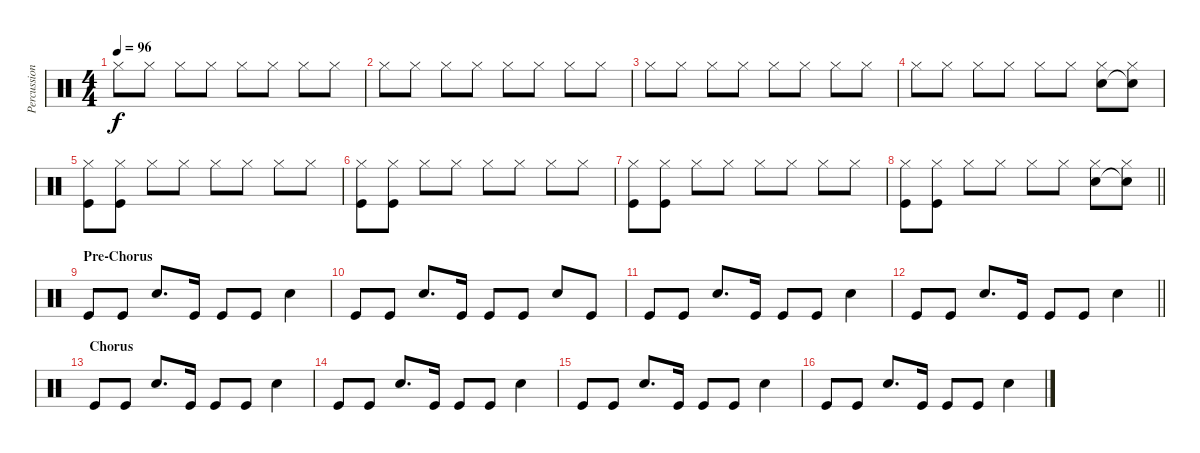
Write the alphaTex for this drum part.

\track ("Percussion" "Percussion") {instrument percussion}
\staff {score}
\articulation defaults
\ts (4 4)
\tempo 96
\clef neutral
\ks c "Hi-Hat (closed)".8{dy f} "Hi-Hat (closed)".8 "Hi-Hat (closed)".8 "Hi-Hat (closed)".8 "Hi-Hat (closed)".8 "Hi-Hat (closed)".8 "Hi-Hat (closed)".8 "Hi-Hat (closed)".8
|
"Hi-Hat (closed)".8 "Hi-Hat (closed)".8 "Hi-Hat (closed)".8 "Hi-Hat (closed)".8 "Hi-Hat (closed)".8 "Hi-Hat (closed)".8 "Hi-Hat (closed)".8 "Hi-Hat (closed)".8 |
"Hi-Hat (closed)".8 "Hi-Hat (closed)".8 "Hi-Hat (closed)".8 "Hi-Hat (closed)".8 "Hi-Hat (closed)".8 "Hi-Hat (closed)".8 "Hi-Hat (closed)".8 "Hi-Hat (closed)".8 |
"Hi-Hat (closed)".8 "Hi-Hat (closed)".8 "Hi-Hat (closed)".8 "Hi-Hat (closed)".8 "Hi-Hat (closed)".8 "Hi-Hat (closed)".8 ("Hi-Hat (closed)" "Electric Snare (hit)").8 ("Hi-Hat (closed)" "Electric Snare (hit)"{t}).8 |
("Hi-Hat (closed)" "Kick (hit)").8 ("Hi-Hat (closed)" "Kick (hit)").8 "Hi-Hat (closed)".8 "Hi-Hat (closed)".8 "Hi-Hat (closed)".8 "Hi-Hat (closed)".8 "Hi-Hat (closed)".8 "Hi-Hat (closed)".8 |
("Hi-Hat (closed)" "Kick (hit)").8 ("Hi-Hat (closed)" "Kick (hit)").8 "Hi-Hat (closed)".8 "Hi-Hat (closed)".8 "Hi-Hat (closed)".8 "Hi-Hat (closed)".8 "Hi-Hat (closed)".8 "Hi-Hat (closed)".8 |
("Hi-Hat (closed)" "Kick (hit)").8 ("Hi-Hat (closed)" "Kick (hit)").8 "Hi-Hat (closed)".8 "Hi-Hat (closed)".8 "Hi-Hat (closed)".8 "Hi-Hat (closed)".8 "Hi-Hat (closed)".8 "Hi-Hat (closed)".8 |
\barLineRight lightlight
("Hi-Hat (closed)" "Kick (hit)").8 ("Hi-Hat (closed)" "Kick (hit)").8 "Hi-Hat (closed)".8 "Hi-Hat (closed)".8 "Hi-Hat (closed)".8 "Hi-Hat (closed)".8 ("Hi-Hat (closed)" "Electric Snare (hit)").8 ("Hi-Hat (closed)" "Snare (hit)"{t}).8 |
\section ("" "Pre-Chorus")
"Kick (hit)".8 "Kick (hit)".8 "Electric Snare (hit)".8{d} "Kick (hit)".16 "Kick (hit)".8 "Kick (hit)".8 "Electric Snare (hit)".4 |
"Kick (hit)".8 "Kick (hit)".8 "Electric Snare (hit)".8{d} "Kick (hit)".16 "Kick (hit)".8 "Kick (hit)".8 "Electric Snare (hit)".8 "Kick (hit)".8 |
"Kick (hit)".8 "Kick (hit)".8 "Electric Snare (hit)".8{d} "Kick (hit)".16 "Kick (hit)".8 "Kick (hit)".8 "Electric Snare (hit)".4 |
\barLineRight lightlight "Kick (hit)".8 "Kick (hit)".8 "Electric Snare (hit)".8{d} "Kick (hit)".16 "Kick (hit)".8 "Kick (hit)".8 "Electric Snare (hit)".4
|
\section ("" "Chorus")
"Kick (hit)".8 "Kick (hit)".8 "Electric Snare (hit)".8{d} "Kick (hit)".16 "Kick (hit)".8 "Kick (hit)".8 "Electric Snare (hit)".4 |
"Kick (hit)".8 "Kick (hit)".8 "Electric Snare (hit)".8{d} "Kick (hit)".16 "Kick (hit)".8 "Kick (hit)".8 "Electric Snare (hit)".4 |
"Kick (hit)".8 "Kick (hit)".8 "Electric Snare (hit)".8{d} "Kick (hit)".16 "Kick (hit)".8 "Kick (hit)".8 "Electric Snare (hit)".4 |
"Kick (hit)".8 "Kick (hit)".8 "Electric Snare (hit)".8{d} "Kick (hit)".16 "Kick (hit)".8 "Kick (hit)".8 "Electric Snare (hit)".4
